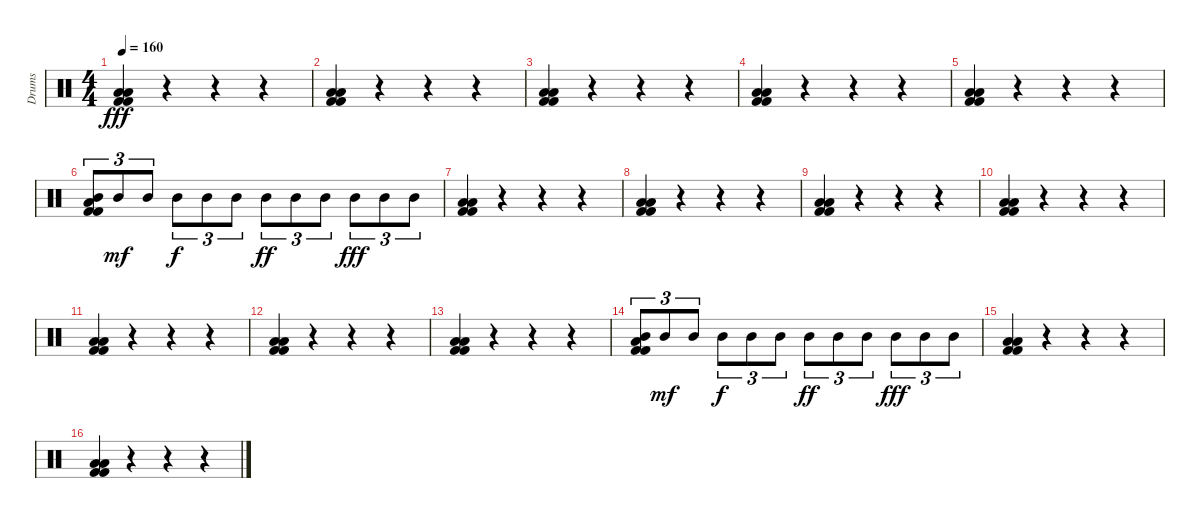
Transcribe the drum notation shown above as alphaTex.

\track ("Drums" "Drums") {instrument percussion}
\staff {score}
\articulation defaults
\ts (4 4)
\tempo 160
\clef neutral
\ks c
("Low Tom (hit)" "Kick (hit) 2" "Kick (hit) 2" "Low Tom (hit)").4{dy fff} r.4 r.4 r.4 |
("Low Tom (hit)" "Kick (hit) 2" "Kick (hit) 2" "Low Tom (hit)").4 r.4 r.4 r.4 |
("Low Tom (hit)" "Kick (hit) 2" "Kick (hit) 2" "Low Tom (hit)").4 r.4 r.4 r.4 |
("Low Tom (hit)" "Kick (hit) 2" "Kick (hit) 2" "Low Tom (hit)").4 r.4 r.4 r.4 |
("Low Tom (hit)" "Kick (hit) 2" "Kick (hit) 2" "Low Tom (hit)").4 r.4 r.4 r.4 |
("Mid Tom (hit)" "Low Tom (hit)" "Kick (hit) 2" "Kick (hit) 2").8{tu (3 2)} "Mid Tom (hit)".8{tu (3 2) dy mf} "Mid Tom (hit)".8{tu (3 2)} "Mid Tom (hit)".8{tu (3 2) dy f} "Mid Tom (hit)".8{tu (3 2)} "Mid Tom (hit)".8{tu (3 2)} "Mid Tom (hit)".8{tu (3 2) dy ff} "Mid Tom (hit)".8{tu (3 2)} "Mid Tom (hit)".8{tu (3 2)} "Mid Tom (hit)".8{tu (3 2) dy fff} "Mid Tom (hit)".8{tu (3 2)} "Mid Tom (hit)".8{tu (3 2)} |
("Low Tom (hit)" "Kick (hit) 2" "Kick (hit) 2" "Low Tom (hit)").4 r.4 r.4 r.4 |
("Low Tom (hit)" "Kick (hit) 2" "Kick (hit) 2" "Low Tom (hit)").4 r.4 r.4 r.4 |
("Low Tom (hit)" "Kick (hit) 2" "Kick (hit) 2" "Low Tom (hit)").4 r.4 r.4 r.4 |
("Low Tom (hit)" "Kick (hit) 2" "Kick (hit) 2" "Low Tom (hit)").4 r.4 r.4 r.4 |
("Low Tom (hit)" "Kick (hit) 2" "Kick (hit) 2" "Low Tom (hit)").4 r.4 r.4 r.4 |
("Low Tom (hit)" "Kick (hit) 2" "Kick (hit) 2" "Low Tom (hit)").4 r.4 r.4 r.4 |
("Low Tom (hit)" "Kick (hit) 2" "Kick (hit) 2" "Low Tom (hit)").4 r.4 r.4 r.4 |
("Mid Tom (hit)" "Low Tom (hit)" "Kick (hit) 2" "Kick (hit) 2").8{tu (3 2)} "Mid Tom (hit)".8{tu (3 2) dy mf} "Mid Tom (hit)".8{tu (3 2)} "Mid Tom (hit)".8{tu (3 2) dy f} "Mid Tom (hit)".8{tu (3 2)} "Mid Tom (hit)".8{tu (3 2)} "Mid Tom (hit)".8{tu (3 2) dy ff} "Mid Tom (hit)".8{tu (3 2)} "Mid Tom (hit)".8{tu (3 2)} "Mid Tom (hit)".8{tu (3 2) dy fff} "Mid Tom (hit)".8{tu (3 2)} "Mid Tom (hit)".8{tu (3 2)} |
("Low Tom (hit)" "Kick (hit) 2" "Kick (hit) 2" "Low Tom (hit)").4 r.4 r.4 r.4 |
("Low Tom (hit)" "Kick (hit) 2" "Kick (hit) 2" "Low Tom (hit)").4 r.4 r.4 r.4
